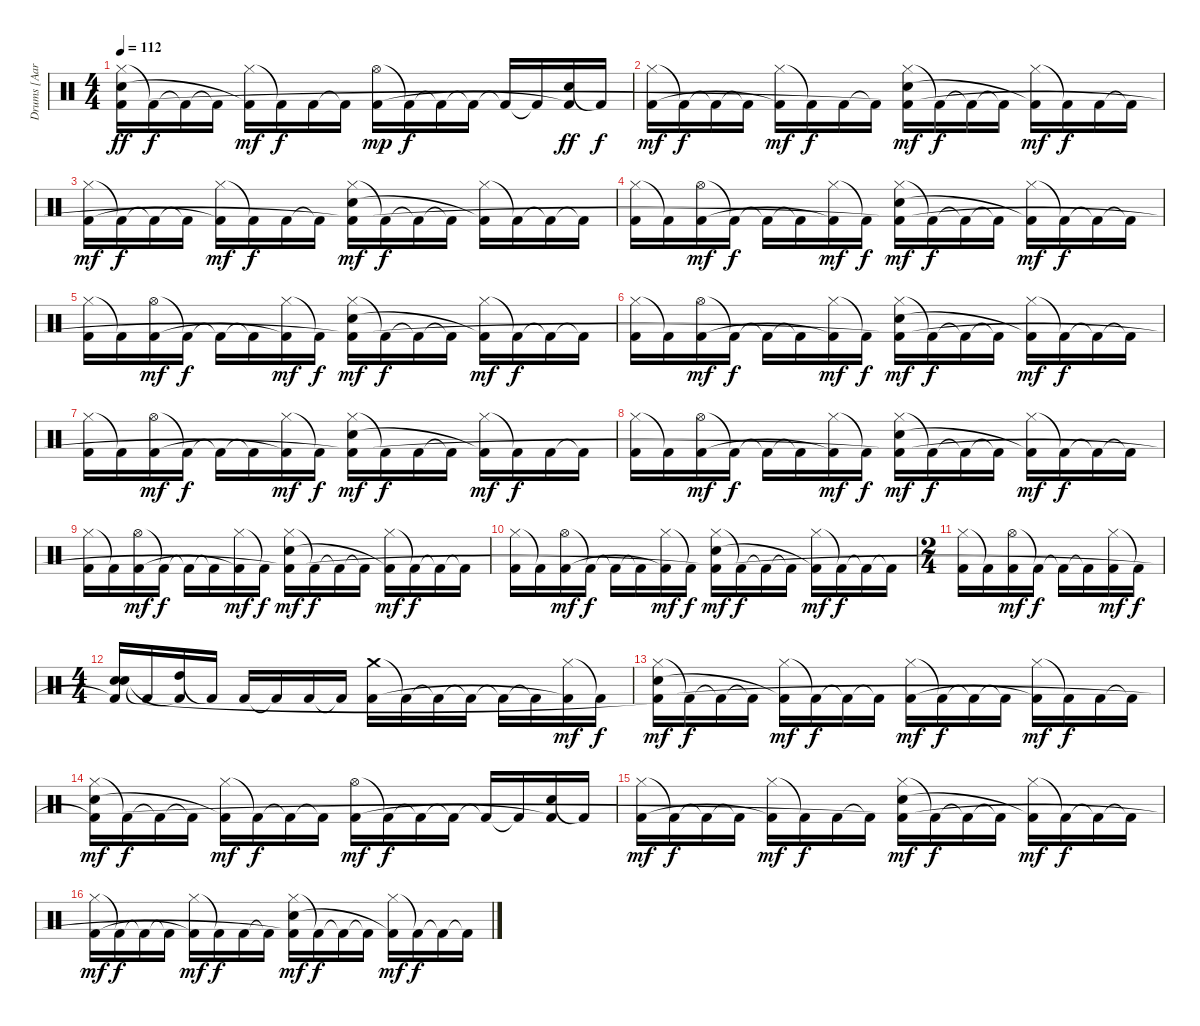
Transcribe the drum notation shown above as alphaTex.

\track ("Drums [Aaron Harris]" "Drums [Aar") {instrument percussion}
\staff {score}
\articulation defaults
\ts (4 4)
\tempo 112
\clef neutral
\ks c
("Hi-Hat (closed)" "Electric Snare (hit)" "Kick (hit) 2"{t}).16{dy ff} "Kick (hit) 2"{t}.16{dy f} "Kick (hit) 2"{t}.16 "Kick (hit) 2"{t}.16 ("Hi-Hat (closed)" "Kick (hit) 2"{t}).16{dy mf} "Kick (hit) 2"{t}.16{dy f} "Kick (hit) 2".16 "Kick (hit) 2"{t}.16 ("Hi-Hat (open)" "Kick (hit) 2").16{dy mp} "Kick (hit) 2"{t}.16{dy f} "Kick (hit) 2"{t}.16 "Kick (hit) 2"{t}.16 "Kick (hit) 2"{t}.16 "Kick (hit) 2"{t}.16 ("Electric Snare (hit)" "Kick (hit) 2"{t}).16{dy ff} "Kick (hit) 2"{t}.16{dy f} |
("Hi-Hat (closed)" "Kick (hit) 2").16{dy mf} "Kick (hit) 2"{t}.16{dy f} "Kick (hit) 2"{t}.16 "Kick (hit) 2"{t}.16 ("Hi-Hat (closed)" "Kick (hit) 2"{t}).16{dy mf} "Kick (hit) 2"{t}.16{dy f} "Kick (hit) 2".16 "Kick (hit) 2"{t}.16 ("Hi-Hat (closed)" "Electric Snare (hit)" "Kick (hit) 2"{t}).16{dy mf} "Kick (hit) 2"{t}.16{dy f} "Kick (hit) 2"{t}.16 "Kick (hit) 2"{t}.16 ("Hi-Hat (closed)" "Kick (hit) 2"{t}).16{dy mf} "Kick (hit) 2"{t}.16{dy f} "Kick (hit) 2".16 "Kick (hit) 2"{t}.16 |
("Hi-Hat (closed)" "Kick (hit) 2").16{dy mf} "Kick (hit) 2"{t}.16{dy f} "Kick (hit) 2"{t}.16 "Kick (hit) 2"{t}.16 ("Hi-Hat (closed)" "Kick (hit) 2"{t}).16{dy mf} "Kick (hit) 2"{t}.16{dy f} "Kick (hit) 2".16 "Kick (hit) 2"{t}.16 ("Hi-Hat (closed)" "Electric Snare (hit)" "Kick (hit) 2"{t}).16{dy mf} "Kick (hit) 2"{t}.16{dy f} "Kick (hit) 2"{t}.16 "Kick (hit) 2"{t}.16 ("Hi-Hat (closed)" "Kick (hit) 2"{t}).16 "Kick (hit) 2"{t}.16 "Kick (hit) 2"{t}.16 "Kick (hit) 2"{t}.16 |
("Hi-Hat (closed)" "Kick (hit) 2").16 "Kick (hit) 2"{t}.16 ("Hi-Hat (open)" "Kick (hit) 2").16{dy mf} "Kick (hit) 2"{t}.16{dy f} "Kick (hit) 2"{t}.16 "Kick (hit) 2"{t}.16 ("Hi-Hat (closed)" "Kick (hit) 2"{t}).16{dy mf} "Kick (hit) 2"{t}.16{dy f} ("Hi-Hat (closed)" "Electric Snare (hit)" "Kick (hit) 2"{t}).16{dy mf} "Kick (hit) 2"{t}.16{dy f} "Kick (hit) 2"{t}.16 "Kick (hit) 2"{t}.16 ("Hi-Hat (closed)" "Kick (hit) 2"{t}).16{dy mf} "Kick (hit) 2"{t}.16{dy f} "Kick (hit) 2"{t}.16 "Kick (hit) 2"{t}.16 |
("Hi-Hat (closed)" "Kick (hit) 2").16 "Kick (hit) 2"{t}.16 ("Hi-Hat (open)" "Kick (hit) 2").16{dy mf} "Kick (hit) 2"{t}.16{dy f} "Kick (hit) 2"{t}.16 "Kick (hit) 2"{t}.16 ("Hi-Hat (closed)" "Kick (hit) 2"{t}).16{dy mf} "Kick (hit) 2"{t}.16{dy f} ("Hi-Hat (closed)" "Electric Snare (hit)" "Kick (hit) 2"{t}).16{dy mf} "Kick (hit) 2"{t}.16{dy f} "Kick (hit) 2"{t}.16 "Kick (hit) 2"{t}.16 ("Hi-Hat (closed)" "Kick (hit) 2"{t}).16{dy mf} "Kick (hit) 2"{t}.16{dy f} "Kick (hit) 2"{t}.16 "Kick (hit) 2"{t}.16 |
("Hi-Hat (closed)" "Kick (hit) 2").16 "Kick (hit) 2"{t}.16 ("Hi-Hat (open)" "Kick (hit) 2").16{dy mf} "Kick (hit) 2"{t}.16{dy f} "Kick (hit) 2"{t}.16 "Kick (hit) 2"{t}.16 ("Hi-Hat (closed)" "Kick (hit) 2"{t}).16{dy mf} "Kick (hit) 2"{t}.16{dy f} ("Hi-Hat (closed)" "Electric Snare (hit)" "Kick (hit) 2"{t}).16{dy mf} "Kick (hit) 2"{t}.16{dy f} "Kick (hit) 2"{t}.16 "Kick (hit) 2"{t}.16 ("Hi-Hat (closed)" "Kick (hit) 2"{t}).16{dy mf} "Kick (hit) 2"{t}.16{dy f} "Kick (hit) 2"{t}.16 "Kick (hit) 2"{t}.16 |
("Hi-Hat (closed)" "Kick (hit) 2").16 "Kick (hit) 2"{t}.16 ("Hi-Hat (open)" "Kick (hit) 2").16{dy mf} "Kick (hit) 2"{t}.16{dy f} "Kick (hit) 2"{t}.16 "Kick (hit) 2"{t}.16 ("Hi-Hat (closed)" "Kick (hit) 2"{t}).16{dy mf} "Kick (hit) 2"{t}.16{dy f} ("Hi-Hat (closed)" "Electric Snare (hit)" "Kick (hit) 2"{t}).16{dy mf} "Kick (hit) 2"{t}.16{dy f} "Kick (hit) 2".16 "Kick (hit) 2"{t}.16 ("Hi-Hat (closed)" "Kick (hit) 2"{t}).16{dy mf} "Kick (hit) 2"{t}.16{dy f} "Kick (hit) 2".16 "Kick (hit) 2"{t}.16 |
("Hi-Hat (closed)" "Kick (hit) 2").16 "Kick (hit) 2"{t}.16 ("Hi-Hat (open)" "Kick (hit) 2").16{dy mf} "Kick (hit) 2"{t}.16{dy f} "Kick (hit) 2"{t}.16 "Kick (hit) 2"{t}.16 ("Hi-Hat (closed)" "Kick (hit) 2"{t}).16{dy mf} "Kick (hit) 2"{t}.16{dy f} ("Hi-Hat (closed)" "Electric Snare (hit)" "Kick (hit) 2"{t}).16{dy mf} "Kick (hit) 2"{t}.16{dy f} "Kick (hit) 2"{t}.16 "Kick (hit) 2"{t}.16 ("Hi-Hat (closed)" "Kick (hit) 2"{t}).16{dy mf} "Kick (hit) 2"{t}.16{dy f} "Kick (hit) 2"{t}.16 "Kick (hit) 2"{t}.16 |
("Hi-Hat (closed)" "Kick (hit) 2").16 "Kick (hit) 2"{t}.16 ("Hi-Hat (open)" "Kick (hit) 2").16{dy mf} "Kick (hit) 2"{t}.16{dy f} "Kick (hit) 2"{t}.16 "Kick (hit) 2"{t}.16 ("Hi-Hat (closed)" "Kick (hit) 2"{t}).16{dy mf} "Kick (hit) 2"{t}.16{dy f} ("Hi-Hat (closed)" "Electric Snare (hit)" "Kick (hit) 2"{t}).16{dy mf} "Kick (hit) 2"{t}.16{dy f} "Kick (hit) 2"{t}.16 "Kick (hit) 2"{t}.16 ("Hi-Hat (closed)" "Kick (hit) 2"{t}).16{dy mf} "Kick (hit) 2"{t}.16{dy f} "Kick (hit) 2"{t}.16 "Kick (hit) 2"{t}.16 |
("Hi-Hat (closed)" "Kick (hit) 2").16 "Kick (hit) 2"{t}.16 ("Hi-Hat (open)" "Kick (hit) 2").16{dy mf} "Kick (hit) 2"{t}.16{dy f} "Kick (hit) 2"{t}.16 "Kick (hit) 2"{t}.16 ("Hi-Hat (closed)" "Kick (hit) 2"{t}).16{dy mf} "Kick (hit) 2"{t}.16{dy f} ("Hi-Hat (closed)" "Electric Snare (hit)" "Kick (hit) 2"{t}).16{dy mf} "Kick (hit) 2"{t}.16{dy f} "Kick (hit) 2"{t}.16 "Kick (hit) 2"{t}.16 ("Hi-Hat (closed)" "Kick (hit) 2"{t}).16{dy mf} "Kick (hit) 2"{t}.16{dy f} "Kick (hit) 2"{t}.16 "Kick (hit) 2"{t}.16 |
\ts (2 4)
("Hi-Hat (closed)" "Kick (hit) 2").16 "Kick (hit) 2"{t}.16 ("Hi-Hat (open)" "Kick (hit) 2").16{dy mf} "Kick (hit) 2"{t}.16{dy f} "Kick (hit) 2"{t}.16 "Kick (hit) 2"{t}.16 ("Hi-Hat (closed)" "Kick (hit) 2").16{dy mf} "Kick (hit) 2"{t}.16{dy f} |
\ts (4 4)
("Electric Snare (hit)" "Electric Snare (hit)" "Kick (hit) 2"{t}).16 "Kick (hit) 2"{t}.16 ("High Tom (hit)" "Kick (hit) 2"{t}).16 "Kick (hit) 2"{t}.16 "Kick (hit) 2".16 "Kick (hit) 2"{t}.16 "Kick (hit) 2".16 "Kick (hit) 2"{t}.16 ("Crash medium (hit)" "Kick (hit) 2").16 "Kick (hit) 2"{t}.16 "Kick (hit) 2"{t}.16 "Kick (hit) 2"{t}.16 "Kick (hit) 2"{t}.16 "Kick (hit) 2"{t}.16 ("Hi-Hat (closed)" "Kick (hit) 2"{t}).16{dy mf} "Kick (hit) 2"{t}.16{dy f} |
("Hi-Hat (closed)" "Electric Snare (hit)" "Kick (hit) 2"{t}).16{dy mf} "Kick (hit) 2"{t}.16{dy f} "Kick (hit) 2"{t}.16 "Kick (hit) 2"{t}.16 ("Hi-Hat (closed)" "Kick (hit) 2"{t}).16{dy mf} "Kick (hit) 2"{t}.16{dy f} "Kick (hit) 2"{t}.16 "Kick (hit) 2"{t}.16 ("Hi-Hat (closed)" "Kick (hit) 2").16{dy mf} "Kick (hit) 2"{t}.16{dy f} "Kick (hit) 2"{t}.16 "Kick (hit) 2"{t}.16 ("Hi-Hat (closed)" "Kick (hit) 2"{t}).16{dy mf} "Kick (hit) 2"{t}.16{dy f} "Kick (hit) 2".16 "Kick (hit) 2"{t}.16 |
("Hi-Hat (closed)" "Electric Snare (hit)" "Kick (hit) 2"{t}).16{dy mf} "Kick (hit) 2"{t}.16{dy f} "Kick (hit) 2"{t}.16 "Kick (hit) 2"{t}.16 ("Hi-Hat (closed)" "Kick (hit) 2"{t}).16{dy mf} "Kick (hit) 2"{t}.16{dy f} "Kick (hit) 2"{t}.16 "Kick (hit) 2"{t}.16 ("Hi-Hat (open)" "Kick (hit) 2").16{dy mf} "Kick (hit) 2"{t}.16{dy f} "Kick (hit) 2"{t}.16 "Kick (hit) 2"{t}.16 "Kick (hit) 2"{t}.16 "Kick (hit) 2"{t}.16 ("Electric Snare (hit)" "Kick (hit) 2"{t}).16 "Kick (hit) 2"{t}.16 |
("Hi-Hat (closed)" "Kick (hit) 2").16{dy mf} "Kick (hit) 2"{t}.16{dy f} "Kick (hit) 2"{t}.16 "Kick (hit) 2"{t}.16 ("Hi-Hat (closed)" "Kick (hit) 2"{t}).16{dy mf} "Kick (hit) 2"{t}.16{dy f} "Kick (hit) 2".16 "Kick (hit) 2"{t}.16 ("Hi-Hat (closed)" "Electric Snare (hit)" "Kick (hit) 2"{t}).16{dy mf} "Kick (hit) 2"{t}.16{dy f} "Kick (hit) 2"{t}.16 "Kick (hit) 2"{t}.16 ("Hi-Hat (closed)" "Kick (hit) 2"{t}).16{dy mf} "Kick (hit) 2"{t}.16{dy f} "Kick (hit) 2"{t}.16 "Kick (hit) 2"{t}.16 |
("Hi-Hat (closed)" "Kick (hit) 2").16{dy mf} "Kick (hit) 2"{t}.16{dy f} "Kick (hit) 2"{t}.16 "Kick (hit) 2"{t}.16 ("Hi-Hat (closed)" "Kick (hit) 2"{t}).16{dy mf} "Kick (hit) 2"{t}.16{dy f} "Kick (hit) 2".16 "Kick (hit) 2"{t}.16 ("Hi-Hat (closed)" "Electric Snare (hit)" "Kick (hit) 2"{t}).16{dy mf} "Kick (hit) 2"{t}.16{dy f} "Kick (hit) 2"{t}.16 "Kick (hit) 2"{t}.16 ("Hi-Hat (closed)" "Kick (hit) 2"{t}).16{dy mf} "Kick (hit) 2"{t}.16{dy f} "Kick (hit) 2"{t}.16 "Kick (hit) 2"{t}.16
